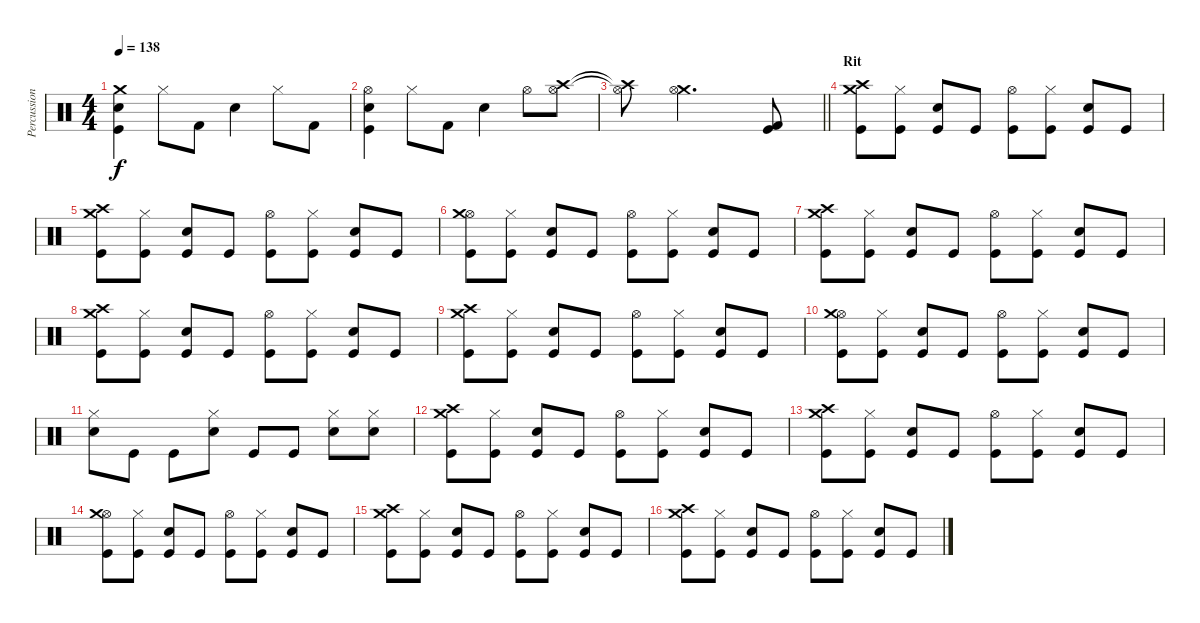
\track ("Percussioni" "Percussion") {instrument percussion}
\staff {score}
\articulation defaults
\ts (4 4)
\tempo 138
\clef neutral
\ks c
("Crash medium (hit)" "Electric Snare (hit)" "Kick (hit)").4{dy f} "Hi-Hat (closed)".8 "Kick (hit) 2".8 "Electric Snare (hit)".4 "Hi-Hat (closed)".8 "Kick (hit) 2".8 |
("Hi-Hat (open)" "Electric Snare (hit)" "Kick (hit)").4 "Hi-Hat (closed)".8 "Kick (hit) 2".8 "Electric Snare (hit)".4 "Hi-Hat (open)".8 ("Crash high (hit)" "Hi-Hat (open)").8 |
\barLineRight lightlight
("Crash high (hit)"{t} "Hi-Hat (open)"{t}).8 ("Crash medium (hit)" "Hi-Hat (open)").2{d} ("Kick (hit)" "Kick (hit) 2").8{volume 13} |
\section ("" "Rit")
("Kick (hit)" "Crash high (hit)" "Crash medium (hit)").8 ("Hi-Hat (closed)" "Kick (hit)").8 ("Electric Snare (hit)" "Kick (hit)").8 "Kick (hit)".8 ("Hi-Hat (open)" "Kick (hit)").8 ("Hi-Hat (closed)" "Kick (hit)").8 ("Electric Snare (hit)" "Kick (hit)").8 "Kick (hit)".8 |
("Kick (hit)" "Crash high (hit)" "Crash medium (hit)").8 ("Hi-Hat (closed)" "Kick (hit)").8 ("Electric Snare (hit)" "Kick (hit)").8 "Kick (hit)".8 ("Hi-Hat (open)" "Kick (hit)").8 ("Hi-Hat (closed)" "Kick (hit)").8 ("Electric Snare (hit)" "Kick (hit)").8 "Kick (hit)".8 |
("Kick (hit)" "Hi-Hat (open)" "Crash medium (hit)").8 ("Hi-Hat (closed)" "Kick (hit)").8 ("Electric Snare (hit)" "Kick (hit)").8 "Kick (hit)".8 ("Hi-Hat (open)" "Kick (hit)").8 ("Hi-Hat (closed)" "Kick (hit)").8 ("Electric Snare (hit)" "Kick (hit)").8 "Kick (hit)".8 |
("Kick (hit)" "Crash high (hit)" "Crash medium (hit)").8 ("Hi-Hat (closed)" "Kick (hit)").8 ("Electric Snare (hit)" "Kick (hit)").8 "Kick (hit)".8 ("Hi-Hat (open)" "Kick (hit)").8 ("Hi-Hat (closed)" "Kick (hit)").8 ("Electric Snare (hit)" "Kick (hit)").8 "Kick (hit)".8 |
("Kick (hit)" "Crash high (hit)" "Crash medium (hit)").8 ("Hi-Hat (closed)" "Kick (hit)").8 ("Electric Snare (hit)" "Kick (hit)").8 "Kick (hit)".8 ("Hi-Hat (open)" "Kick (hit)").8 ("Hi-Hat (closed)" "Kick (hit)").8 ("Electric Snare (hit)" "Kick (hit)").8 "Kick (hit)".8 |
("Kick (hit)" "Crash high (hit)" "Crash medium (hit)").8 ("Hi-Hat (closed)" "Kick (hit)").8 ("Electric Snare (hit)" "Kick (hit)").8 "Kick (hit)".8 ("Hi-Hat (open)" "Kick (hit)").8 ("Hi-Hat (closed)" "Kick (hit)").8 ("Electric Snare (hit)" "Kick (hit)").8 "Kick (hit)".8 |
("Kick (hit)" "Hi-Hat (open)" "Crash medium (hit)").8 ("Hi-Hat (closed)" "Kick (hit)").8 ("Electric Snare (hit)" "Kick (hit)").8 "Kick (hit)".8 ("Hi-Hat (open)" "Kick (hit)").8 ("Hi-Hat (closed)" "Kick (hit)").8 ("Electric Snare (hit)" "Kick (hit)").8 "Kick (hit)".8 |
("Electric Snare (hit)" "Hi-Hat (closed)").8 "Kick (hit)".8 "Kick (hit)".8 ("Electric Snare (hit)" "Hi-Hat (closed)").8 "Kick (hit)".8 "Kick (hit)".8 ("Electric Snare (hit)" "Hi-Hat (closed)").8 ("Electric Snare (hit)" "Hi-Hat (closed)").8 |
("Kick (hit)" "Crash high (hit)" "Crash medium (hit)").8 ("Hi-Hat (closed)" "Kick (hit)").8 ("Electric Snare (hit)" "Kick (hit)").8 "Kick (hit)".8 ("Hi-Hat (open)" "Kick (hit)").8 ("Hi-Hat (closed)" "Kick (hit)").8 ("Electric Snare (hit)" "Kick (hit)").8 "Kick (hit)".8 |
("Kick (hit)" "Crash high (hit)" "Crash medium (hit)").8 ("Hi-Hat (closed)" "Kick (hit)").8 ("Electric Snare (hit)" "Kick (hit)").8 "Kick (hit)".8 ("Hi-Hat (open)" "Kick (hit)").8 ("Hi-Hat (closed)" "Kick (hit)").8 ("Electric Snare (hit)" "Kick (hit)").8 "Kick (hit)".8 |
("Kick (hit)" "Hi-Hat (open)" "Crash medium (hit)").8 ("Hi-Hat (closed)" "Kick (hit)").8 ("Electric Snare (hit)" "Kick (hit)").8 "Kick (hit)".8 ("Hi-Hat (open)" "Kick (hit)").8 ("Hi-Hat (closed)" "Kick (hit)").8 ("Electric Snare (hit)" "Kick (hit)").8 "Kick (hit)".8 |
("Kick (hit)" "Crash high (hit)" "Crash medium (hit)").8 ("Hi-Hat (closed)" "Kick (hit)").8 ("Electric Snare (hit)" "Kick (hit)").8 "Kick (hit)".8 ("Hi-Hat (open)" "Kick (hit)").8 ("Hi-Hat (closed)" "Kick (hit)").8 ("Electric Snare (hit)" "Kick (hit)").8 "Kick (hit)".8 |
("Kick (hit)" "Crash high (hit)" "Crash medium (hit)").8 ("Hi-Hat (closed)" "Kick (hit)").8 ("Electric Snare (hit)" "Kick (hit)").8 "Kick (hit)".8 ("Hi-Hat (open)" "Kick (hit)").8 ("Hi-Hat (closed)" "Kick (hit)").8 ("Electric Snare (hit)" "Kick (hit)").8 "Kick (hit)".8
